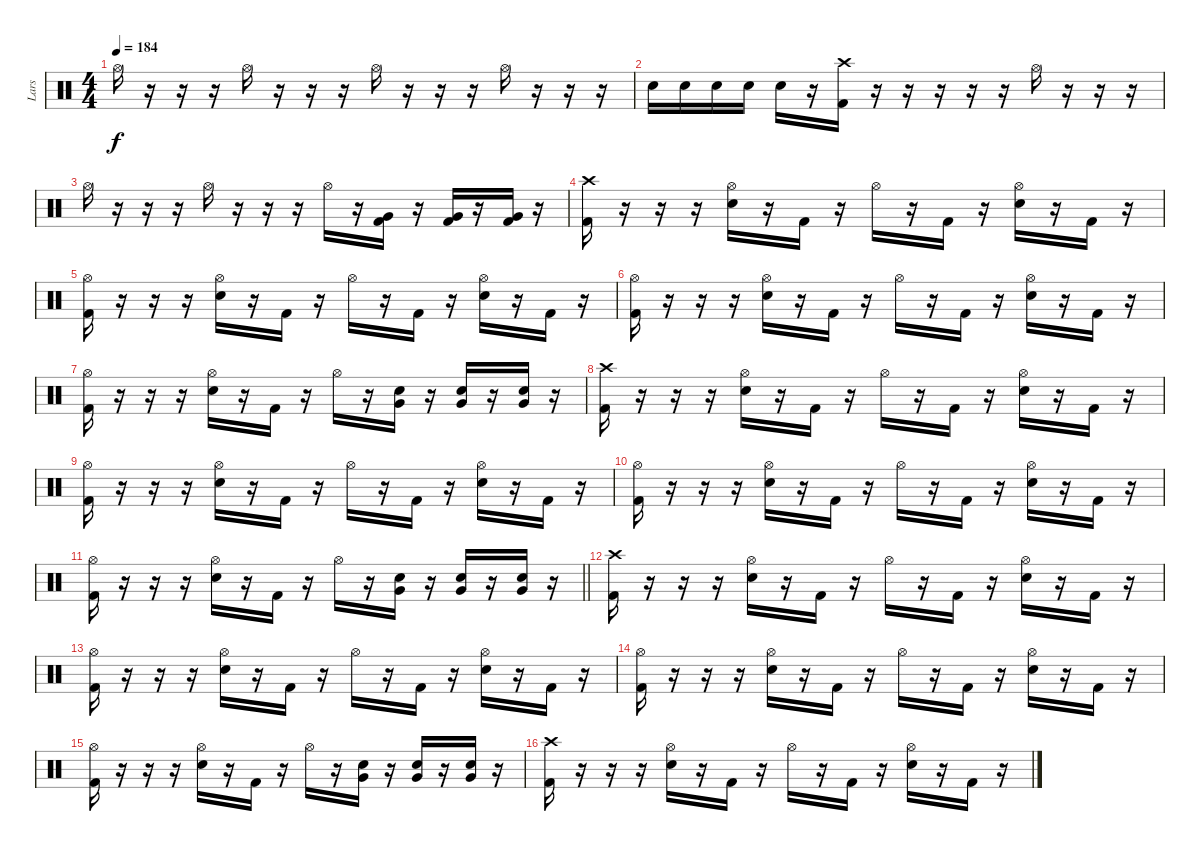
\track ("Lars" "Lars") {instrument percussion}
\staff {score}
\articulation defaults
\ts (4 4)
\tempo 184
\clef neutral
\ks c "Hi-Hat (open)".16{dy f}
r.16 r.16 r.16 "Hi-Hat (open)".16 r.16 r.16 r.16 "Hi-Hat (open)".16 r.16 r.16 r.16 "Hi-Hat (open)".16 r.16 r.16 r.16 |
"Electric Snare (hit)".16 "Electric Snare (hit)".16 "Electric Snare (hit)".16 "Electric Snare (hit)".16 "Electric Snare (hit)".16 r.16 ("Crash high (hit)" "Kick (hit) 2").16 r.16 r.16 r.16 r.16 r.16 "Hi-Hat (open)".16 r.16 r.16 r.16 |
"Hi-Hat (open)".16 r.16 r.16 r.16 "Hi-Hat (open)".16 r.16 r.16 r.16 "Hi-Hat (open)".16 r.16 ("Very Low Tom (hit)" "Kick (hit) 2").16 r.16 ("Very Low Tom (hit)" "Kick (hit) 2").16 r.16 ("Very Low Tom (hit)" "Kick (hit) 2").16 r.16 |
("Crash high (hit)" "Kick (hit) 2").16 r.16 r.16 r.16 ("Electric Snare (hit)" "Hi-Hat (open)").16 r.16 "Kick (hit) 2".16 r.16 "Hi-Hat (open)".16 r.16 "Kick (hit) 2".16 r.16 ("Electric Snare (hit)" "Hi-Hat (open)").16 r.16 "Kick (hit) 2".16 r.16 |
("Hi-Hat (open)" "Kick (hit) 2").16 r.16 r.16 r.16 ("Electric Snare (hit)" "Hi-Hat (open)").16 r.16 "Kick (hit) 2".16 r.16 "Hi-Hat (open)".16 r.16 "Kick (hit) 2".16 r.16 ("Electric Snare (hit)" "Hi-Hat (open)").16 r.16 "Kick (hit) 2".16 r.16 |
("Hi-Hat (open)" "Kick (hit) 2").16 r.16 r.16 r.16 ("Electric Snare (hit)" "Hi-Hat (open)").16 r.16 "Kick (hit) 2".16 r.16 "Hi-Hat (open)".16 r.16 "Kick (hit) 2".16 r.16 ("Electric Snare (hit)" "Hi-Hat (open)").16 r.16 "Kick (hit) 2".16 r.16 |
("Hi-Hat (open)" "Kick (hit) 2").16 r.16 r.16 r.16 ("Electric Snare (hit)" "Hi-Hat (open)").16 r.16 "Kick (hit) 2".16 r.16 "Hi-Hat (open)".16 r.16 ("Electric Snare (hit)" "Very Low Tom (hit)").16 r.16 ("Electric Snare (hit)" "Very Low Tom (hit)").16 r.16 ("Electric Snare (hit)" "Very Low Tom (hit)").16 r.16 |
("Crash high (hit)" "Kick (hit) 2").16 r.16 r.16 r.16 ("Electric Snare (hit)" "Hi-Hat (open)").16 r.16 "Kick (hit) 2".16 r.16 "Hi-Hat (open)".16 r.16 "Kick (hit) 2".16 r.16 ("Electric Snare (hit)" "Hi-Hat (open)").16 r.16 "Kick (hit) 2".16 r.16 |
("Hi-Hat (open)" "Kick (hit) 2").16 r.16 r.16 r.16 ("Electric Snare (hit)" "Hi-Hat (open)").16 r.16 "Kick (hit) 2".16 r.16 "Hi-Hat (open)".16 r.16 "Kick (hit) 2".16 r.16 ("Electric Snare (hit)" "Hi-Hat (open)").16 r.16 "Kick (hit) 2".16 r.16 |
("Hi-Hat (open)" "Kick (hit) 2").16 r.16 r.16 r.16 ("Electric Snare (hit)" "Hi-Hat (open)").16 r.16 "Kick (hit) 2".16 r.16 "Hi-Hat (open)".16 r.16 "Kick (hit) 2".16 r.16 ("Electric Snare (hit)" "Hi-Hat (open)").16 r.16 "Kick (hit) 2".16 r.16 |
\barLineRight lightlight
("Hi-Hat (open)" "Kick (hit) 2").16 r.16 r.16 r.16 ("Electric Snare (hit)" "Hi-Hat (open)").16 r.16 "Kick (hit) 2".16 r.16 "Hi-Hat (open)".16 r.16 ("Electric Snare (hit)" "Very Low Tom (hit)").16 r.16 ("Electric Snare (hit)" "Very Low Tom (hit)").16 r.16 ("Electric Snare (hit)" "Very Low Tom (hit)").16 r.16 |
("Crash high (hit)" "Kick (hit) 2").16 r.16 r.16 r.16 ("Electric Snare (hit)" "Hi-Hat (open)").16 r.16 "Kick (hit) 2".16 r.16 "Hi-Hat (open)".16 r.16 "Kick (hit) 2".16 r.16 ("Electric Snare (hit)" "Hi-Hat (open)").16 r.16 "Kick (hit) 2".16 r.16 |
("Hi-Hat (open)" "Kick (hit) 2").16 r.16 r.16 r.16 ("Electric Snare (hit)" "Hi-Hat (open)").16 r.16 "Kick (hit) 2".16 r.16 "Hi-Hat (open)".16 r.16 "Kick (hit) 2".16 r.16 ("Electric Snare (hit)" "Hi-Hat (open)").16 r.16 "Kick (hit) 2".16 r.16 |
("Hi-Hat (open)" "Kick (hit) 2").16 r.16 r.16 r.16 ("Electric Snare (hit)" "Hi-Hat (open)").16 r.16 "Kick (hit) 2".16 r.16 "Hi-Hat (open)".16 r.16 "Kick (hit) 2".16 r.16 ("Electric Snare (hit)" "Hi-Hat (open)").16 r.16 "Kick (hit) 2".16 r.16 |
("Hi-Hat (open)" "Kick (hit) 2").16 r.16 r.16 r.16 ("Electric Snare (hit)" "Hi-Hat (open)").16 r.16 "Kick (hit) 2".16 r.16 "Hi-Hat (open)".16 r.16 ("Electric Snare (hit)" "Very Low Tom (hit)").16 r.16 ("Electric Snare (hit)" "Very Low Tom (hit)").16 r.16 ("Electric Snare (hit)" "Very Low Tom (hit)").16 r.16 |
("Crash high (hit)" "Kick (hit) 2").16 r.16 r.16 r.16 ("Electric Snare (hit)" "Hi-Hat (open)").16 r.16 "Kick (hit) 2".16 r.16 "Hi-Hat (open)".16 r.16 "Kick (hit) 2".16 r.16 ("Electric Snare (hit)" "Hi-Hat (open)").16 r.16 "Kick (hit) 2".16 r.16
